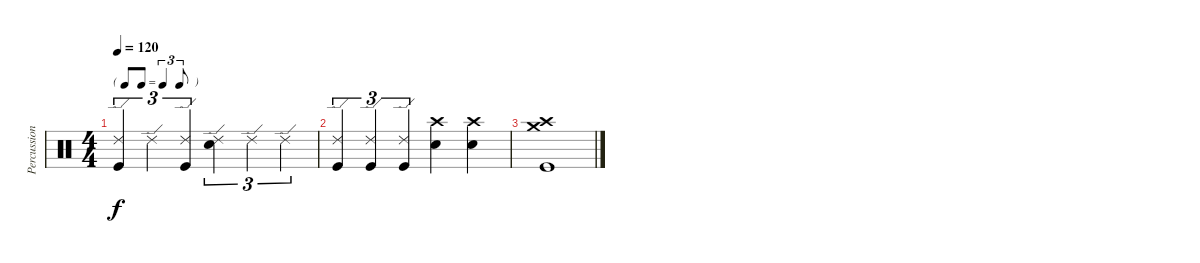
\track ("Percussion" "Percussion") {instrument percussion}
\staff {score}
\articulation defaults
\ts (4 4)
\tf triplet8th
\tempo 120
\clef neutral
\ks c
("Ride (edge) 2" "Kick (hit)").4{tu (3 2) dy f} "Ride (edge) 2".4{tu (3 2)} ("Ride (edge) 2" "Kick (hit)").4{tu (3 2)} ("Ride (edge) 2" "Electric Snare (hit)").4{tu (3 2)} "Ride (edge) 2".4{tu (3 2)} "Ride (edge) 2".4{tu (3 2)} |
("Ride (edge) 2" "Kick (hit)").4{tu (3 2)} ("Ride (edge) 2" "Kick (hit)").4{tu (3 2)} ("Ride (edge) 2" "Kick (hit)").4{tu (3 2)} ("Crash high (hit)" "Electric Snare (hit)").4 ("Crash high (hit)" "Electric Snare (hit)").4 |
("Crash high (hit)" "Crash medium (hit)" "Kick (hit)").1
